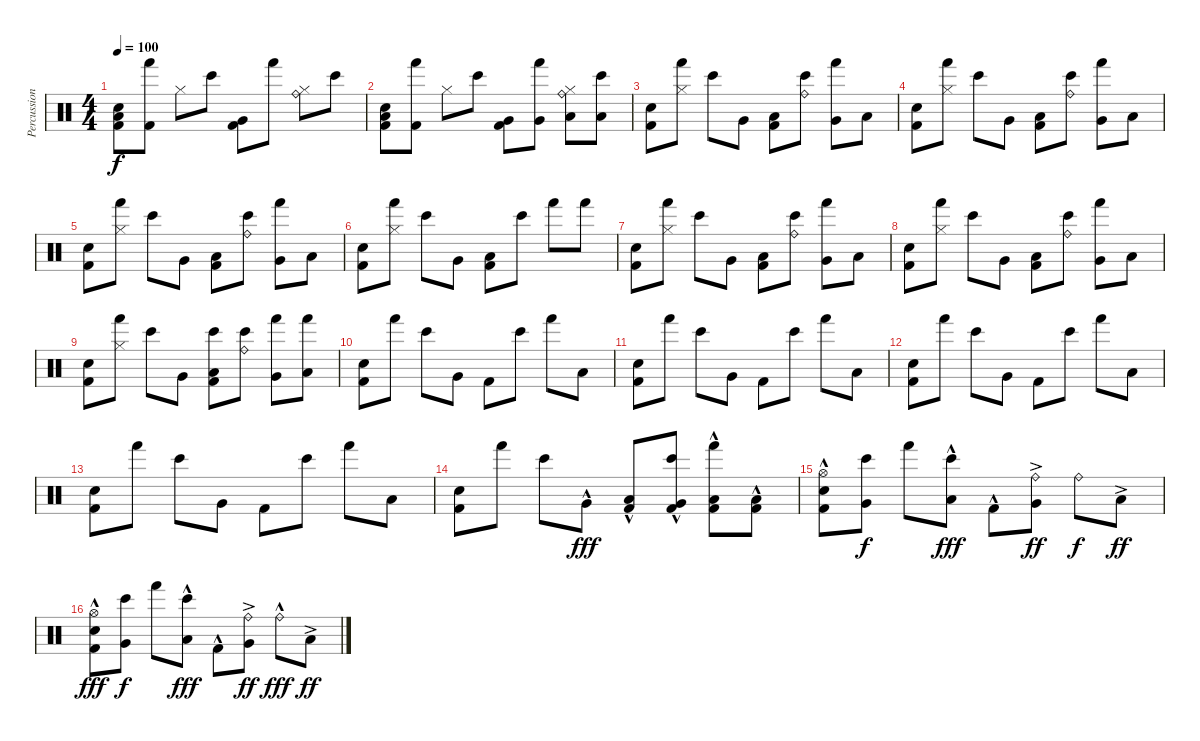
\track ("Percussion" "Percussion") {instrument percussion}
\staff {score}
\articulation defaults
\ts (4 4)
\tempo 100
\clef neutral
\ks c
("Electric Snare (hit)" "Low Floor Tom (hit)" "Kick (hit) 2").8{dy f} ("Hand (hit)" "Kick (hit) 2").8 "Hi-Hat (closed)".8 "Bongo High (hit)".8 ("Very Low Tom (hit)" "Kick (hit) 2").8 "Hand (hit)".8 ("Hi-Hat (closed)" "Ride (bell)").8 "Bongo High (hit)".8 |
("Electric Snare (hit)" "Low Floor Tom (hit)" "Kick (hit) 2").8 ("Hand (hit)" "Kick (hit) 2").8 "Hi-Hat (closed)".8 "Bongo High (hit)".8 ("Very Low Tom (hit)" "Kick (hit) 2").8 ("Hand (hit)" "Very Low Tom (hit)").8 ("Hi-Hat (closed)" "Ride (bell)" "Low Floor Tom (hit)").8 ("Bongo High (hit)" "Low Floor Tom (hit)").8 |
("Electric Snare (hit)" "Kick (hit) 2").8 ("Hand (hit)" "Hi-Hat (closed)").8 "Bongo High (hit)".8 "Very Low Tom (hit)".8 ("Low Floor Tom (hit)" "Kick (hit) 2").8 ("Bongo High (hit)" "Ride (bell)").8 ("Hand (hit)" "Very Low Tom (hit)").8 "Low Floor Tom (hit)".8 |
("Electric Snare (hit)" "Kick (hit) 2").8 ("Hand (hit)" "Hi-Hat (closed)").8 "Bongo High (hit)".8 "Very Low Tom (hit)".8 ("Low Floor Tom (hit)" "Kick (hit) 2").8 ("Bongo High (hit)" "Ride (bell)").8 ("Hand (hit)" "Very Low Tom (hit)").8 "Low Floor Tom (hit)".8 |
("Electric Snare (hit)" "Kick (hit) 2").8 ("Hand (hit)" "Hi-Hat (closed)").8 "Bongo High (hit)".8 "Very Low Tom (hit)".8 ("Low Floor Tom (hit)" "Kick (hit) 2").8 ("Bongo High (hit)" "Ride (bell)").8 ("Hand (hit)" "Very Low Tom (hit)").8 "Low Floor Tom (hit)".8 |
("Electric Snare (hit)" "Kick (hit) 2").8 ("Hand (hit)" "Hi-Hat (closed)").8 "Bongo High (hit)".8 "Very Low Tom (hit)".8 ("Low Floor Tom (hit)" "Kick (hit) 2").8 "Bongo High (hit)".8 "Hand (hit)".8 "Hand (hit)".8 |
("Electric Snare (hit)" "Kick (hit) 2").8 ("Hand (hit)" "Hi-Hat (closed)").8 "Bongo High (hit)".8 "Very Low Tom (hit)".8 ("Low Floor Tom (hit)" "Kick (hit) 2").8 ("Bongo High (hit)" "Ride (bell)").8 ("Hand (hit)" "Very Low Tom (hit)").8 "Low Floor Tom (hit)".8 |
("Electric Snare (hit)" "Kick (hit) 2").8 ("Hand (hit)" "Hi-Hat (closed)").8 "Bongo High (hit)".8 "Very Low Tom (hit)".8 ("Low Floor Tom (hit)" "Kick (hit) 2").8 ("Bongo High (hit)" "Ride (bell)").8 ("Hand (hit)" "Very Low Tom (hit)").8 "Low Floor Tom (hit)".8 |
("Electric Snare (hit)" "Kick (hit) 2").8 ("Hand (hit)" "Hi-Hat (closed)").8 "Bongo High (hit)".8 "Very Low Tom (hit)".8 ("Bongo High (hit)" "Low Floor Tom (hit)" "Kick (hit) 2").8 ("Bongo High (hit)" "Ride (bell)").8 ("Hand (hit)" "Very Low Tom (hit)").8 ("Hand (hit)" "Low Floor Tom (hit)").8 |
("Electric Snare (hit)" "Kick (hit) 2").8 "Hand (hit)".8 "Bongo High (hit)".8 "Very Low Tom (hit)".8 "Kick (hit) 2".8 "Bongo High (hit)".8 "Hand (hit)".8 "Low Floor Tom (hit)".8 |
("Electric Snare (hit)" "Kick (hit) 2").8 "Hand (hit)".8 "Bongo High (hit)".8 "Very Low Tom (hit)".8 "Kick (hit) 2".8 "Bongo High (hit)".8 "Hand (hit)".8 "Low Floor Tom (hit)".8 |
("Electric Snare (hit)" "Kick (hit) 2").8 "Hand (hit)".8 "Bongo High (hit)".8 "Very Low Tom (hit)".8 "Kick (hit) 2".8 "Bongo High (hit)".8 "Hand (hit)".8 "Low Floor Tom (hit)".8 |
("Electric Snare (hit)" "Kick (hit) 2").8 "Hand (hit)".8 "Bongo High (hit)".8 "Very Low Tom (hit)".8 "Kick (hit) 2".8 "Bongo High (hit)".8 "Hand (hit)".8 "Low Floor Tom (hit)".8 |
("Electric Snare (hit)" "Kick (hit) 2").8 "Hand (hit)".8 "Bongo High (hit)".8 "Very Low Tom (hit)"{hac}.8{dy fff} ("Low Floor Tom (hit)"{hac} "Kick (hit) 2"{hac}).8 ("Bongo High (hit)" "Very Low Tom (hit)"{hac} "Kick (hit) 2"{hac}).8 ("Hand (hit)" "Low Floor Tom (hit)"{hac} "Kick (hit) 2"{hac}).8 ("Low Floor Tom (hit)"{hac} "Kick (hit) 2"{hac}).8 |
("Electric Snare (hit)" "Hi-Hat (open)" "Kick (hit) 2"{hac}).8 ("Bongo High (hit)" "Very Low Tom (hit)").8{dy f} "Hand (hit)".8 ("Bongo High (hit)" "Low Floor Tom (hit)"{hac}).8{dy fff} "Kick (hit) 2"{hac}.8 ("Ride (bell)" "Very Low Tom (hit)"{ac}).8{dy ff} "Ride (bell)".8{dy f} "Low Floor Tom (hit)"{ac}.8{dy ff} |
("Electric Snare (hit)" "Hi-Hat (open)" "Kick (hit) 2"{hac}).8{dy fff} ("Bongo High (hit)" "Very Low Tom (hit)").8{dy f} "Hand (hit)".8 ("Bongo High (hit)" "Low Floor Tom (hit)"{hac}).8{dy fff} "Kick (hit) 2"{hac}.8 ("Ride (bell)" "Very Low Tom (hit)"{ac}).8{dy ff} "Ride (bell)"{hac}.8{dy fff} "Low Floor Tom (hit)"{ac}.8{dy ff}
